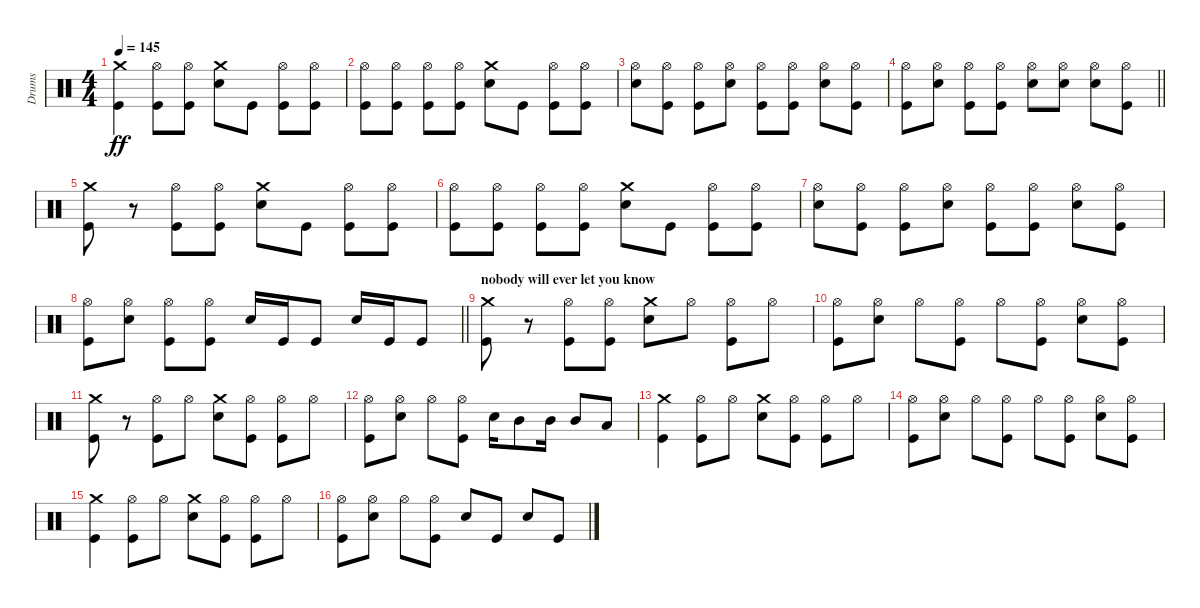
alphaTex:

\track ("Drums" "Drums") {instrument percussion}
\staff {score}
\articulation defaults
\ts (4 4)
\tempo 145
\clef neutral
\ks c
("Kick (hit)" "Crash medium (hit)").4{dy ff} ("Hi-Hat (open)" "Kick (hit)").8 ("Hi-Hat (open)" "Kick (hit)").8 ("Snare (hit) 2" "Crash medium (hit)").8 "Kick (hit)".8 ("Hi-Hat (open)" "Kick (hit)").8 ("Hi-Hat (open)" "Kick (hit)").8 |
("Hi-Hat (open)" "Kick (hit)").8 ("Hi-Hat (open)" "Kick (hit)").8 ("Kick (hit)" "Hi-Hat (open)").8 ("Hi-Hat (open)" "Kick (hit)").8 ("Snare (hit) 2" "Crash medium (hit)").8 "Kick (hit)".8 ("Hi-Hat (open)" "Kick (hit)").8 ("Hi-Hat (open)" "Kick (hit)").8 |
("Hi-Hat (open)" "Snare (hit) 2").8 ("Hi-Hat (open)" "Kick (hit)").8 ("Hi-Hat (open)" "Kick (hit)").8 ("Snare (hit) 2" "Hi-Hat (open)").8 ("Hi-Hat (open)" "Kick (hit)").8 ("Hi-Hat (open)" "Kick (hit)").8 ("Snare (hit) 2" "Hi-Hat (open)").8 ("Hi-Hat (open)" "Kick (hit)").8 |
\barLineRight lightlight
("Hi-Hat (open)" "Kick (hit)").8 ("Snare (hit) 2" "Hi-Hat (open)").8 ("Hi-Hat (open)" "Kick (hit)").8 ("Hi-Hat (open)" "Kick (hit)").8 ("Hi-Hat (open)" "Snare (hit) 2").8 ("Hi-Hat (open)" "Snare (hit) 2").8 ("Hi-Hat (open)" "Snare (hit) 2").8 ("Hi-Hat (open)" "Kick (hit)").8 |
("Kick (hit)" "Crash medium (hit)").8 r.8 ("Hi-Hat (open)" "Kick (hit)").8 ("Hi-Hat (open)" "Kick (hit)").8 ("Snare (hit) 2" "Crash medium (hit)").8 "Kick (hit)".8 ("Hi-Hat (open)" "Kick (hit)").8 ("Hi-Hat (open)" "Kick (hit)").8 |
("Hi-Hat (open)" "Kick (hit)").8 ("Hi-Hat (open)" "Kick (hit)").8 ("Kick (hit)" "Hi-Hat (open)").8 ("Hi-Hat (open)" "Kick (hit)").8 ("Snare (hit) 2" "Crash medium (hit)").8 "Kick (hit)".8 ("Hi-Hat (open)" "Kick (hit)").8 ("Hi-Hat (open)" "Kick (hit)").8 |
("Hi-Hat (open)" "Snare (hit) 2").8 ("Hi-Hat (open)" "Kick (hit)").8 ("Hi-Hat (open)" "Kick (hit)").8 ("Snare (hit) 2" "Hi-Hat (open)").8 ("Hi-Hat (open)" "Kick (hit)").8 ("Hi-Hat (open)" "Kick (hit)").8 ("Snare (hit) 2" "Hi-Hat (open)").8 ("Hi-Hat (open)" "Kick (hit)").8 |
\barLineRight lightlight
("Hi-Hat (open)" "Kick (hit)").8 ("Snare (hit) 2" "Hi-Hat (open)").8 ("Hi-Hat (open)" "Kick (hit)").8 ("Hi-Hat (open)" "Kick (hit)").8 "Snare (hit) 2".16 "Kick (hit)".16 "Kick (hit)".8 "Snare (hit) 2".16 "Kick (hit)".16 "Kick (hit)".8 |
\section ("" "nobody will ever let you know")
("Crash medium (hit)" "Kick (hit)").8 r.8 ("Hi-Hat (open)" "Kick (hit)").8 ("Hi-Hat (open)" "Kick (hit)").8 ("Snare (hit) 2" "Crash medium (hit)").8 "Hi-Hat (open)".8 ("Hi-Hat (open)" "Kick (hit)").8 "Hi-Hat (open)".8 |
("Kick (hit)" "Hi-Hat (open)").8 ("Hi-Hat (open)" "Snare (hit) 2").8 "Hi-Hat (open)".8 ("Hi-Hat (open)" "Kick (hit)").8 "Hi-Hat (open)".8 ("Kick (hit)" "Hi-Hat (open)").8 ("Snare (hit) 2" "Hi-Hat (open)").8 ("Hi-Hat (open)" "Kick (hit)").8 |
("Crash medium (hit)" "Kick (hit)").8 r.8 ("Hi-Hat (open)" "Kick (hit)").8 "Hi-Hat (open)".8 ("Snare (hit) 2" "Crash medium (hit)").8 ("Kick (hit)" "Hi-Hat (open)").8 ("Hi-Hat (open)" "Kick (hit)").8 "Hi-Hat (open)".8 |
("Kick (hit)" "Hi-Hat (open)").8 ("Hi-Hat (open)" "Snare (hit) 2").8 "Hi-Hat (open)".8 ("Hi-Hat (open)" "Kick (hit)").8 "Snare (hit) 2".16 "Mid Tom (hit)".8 "Mid Tom (hit)".16 "Mid Tom (hit)".8 "Low Floor Tom (hit)".8 |
("Crash medium (hit)" "Kick (hit)").4 ("Hi-Hat (open)" "Kick (hit)").8 "Hi-Hat (open)".8 ("Snare (hit) 2" "Crash medium (hit)").8 ("Hi-Hat (open)" "Kick (hit)").8 ("Hi-Hat (open)" "Kick (hit)").8 "Hi-Hat (open)".8 |
("Kick (hit)" "Hi-Hat (open)").8 ("Hi-Hat (open)" "Snare (hit) 2").8 "Hi-Hat (open)".8 ("Hi-Hat (open)" "Kick (hit)").8 "Hi-Hat (open)".8 ("Kick (hit)" "Hi-Hat (open)").8 ("Snare (hit) 2" "Hi-Hat (open)").8 ("Hi-Hat (open)" "Kick (hit)").8 |
("Crash medium (hit)" "Kick (hit)").4 ("Hi-Hat (open)" "Kick (hit)").8 "Hi-Hat (open)".8 ("Snare (hit) 2" "Crash medium (hit)").8 ("Hi-Hat (open)" "Kick (hit)").8 ("Hi-Hat (open)" "Kick (hit)").8 "Hi-Hat (open)".8 |
("Kick (hit)" "Hi-Hat (open)").8 ("Hi-Hat (open)" "Snare (hit) 2").8 "Hi-Hat (open)".8 ("Hi-Hat (open)" "Kick (hit)").8 "Snare (hit) 2".8 "Kick (hit)".8 "Snare (hit) 2".8 "Kick (hit)".8
